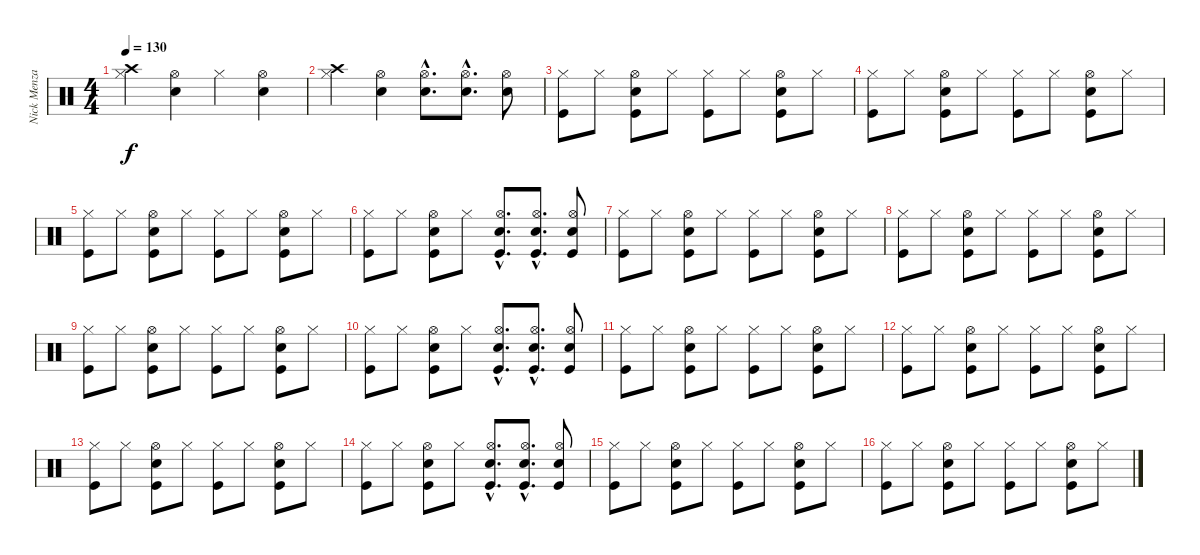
\track ("Nick Menza" "Nick Menza") {instrument percussion}
\staff {score}
\articulation defaults
\ts (4 4)
\tempo 130
\clef neutral
\ks c
("Crash high (hit)" "Hi-Hat (closed)").4{dy f} ("Snare (hit) 2" "Hi-Hat (open)").4 "Hi-Hat (closed)".4 ("Snare (hit) 2" "Hi-Hat (open)").4 |
("Crash high (hit)" "Hi-Hat (closed)").4 ("Snare (hit) 2" "Hi-Hat (open)").4 ("Snare (hit) 2"{hac} "Hi-Hat (open)"{hac}).8{d} ("Snare (hit) 2"{hac} "Hi-Hat (open)"{hac}).8{d} ("Snare (hit) 2" "Hi-Hat (open)").8 |
("Hi-Hat (closed)" "Kick (hit)").8 "Hi-Hat (closed)".8 ("Snare (hit) 2" "Hi-Hat (open)" "Kick (hit)").8 "Hi-Hat (closed)".8 ("Hi-Hat (closed)" "Kick (hit)").8 "Hi-Hat (closed)".8 ("Snare (hit) 2" "Hi-Hat (open)" "Kick (hit)").8 "Hi-Hat (closed)".8 |
("Hi-Hat (closed)" "Kick (hit)").8 "Hi-Hat (closed)".8 ("Snare (hit) 2" "Hi-Hat (open)" "Kick (hit)").8 "Hi-Hat (closed)".8 ("Hi-Hat (closed)" "Kick (hit)").8 "Hi-Hat (closed)".8 ("Snare (hit) 2" "Hi-Hat (open)" "Kick (hit)").8 "Hi-Hat (closed)".8 |
("Hi-Hat (closed)" "Kick (hit)").8 "Hi-Hat (closed)".8 ("Snare (hit) 2" "Hi-Hat (open)" "Kick (hit)").8 "Hi-Hat (closed)".8 ("Hi-Hat (closed)" "Kick (hit)").8 "Hi-Hat (closed)".8 ("Snare (hit) 2" "Hi-Hat (open)" "Kick (hit)").8 "Hi-Hat (closed)".8 |
("Hi-Hat (closed)" "Kick (hit)").8 "Hi-Hat (closed)".8 ("Snare (hit) 2" "Hi-Hat (open)" "Kick (hit)").8 "Hi-Hat (closed)".8 ("Snare (hit) 2"{hac} "Hi-Hat (open)"{hac} "Kick (hit)"{hac}).8{d} ("Snare (hit) 2"{hac} "Hi-Hat (open)"{hac} "Kick (hit)"{hac}).8{d} ("Snare (hit) 2" "Hi-Hat (open)" "Kick (hit)").8 |
("Hi-Hat (closed)" "Kick (hit)").8 "Hi-Hat (closed)".8 ("Snare (hit) 2" "Hi-Hat (open)" "Kick (hit)").8 "Hi-Hat (closed)".8 ("Hi-Hat (closed)" "Kick (hit)").8 "Hi-Hat (closed)".8 ("Snare (hit) 2" "Hi-Hat (open)" "Kick (hit)").8 "Hi-Hat (closed)".8 |
("Hi-Hat (closed)" "Kick (hit)").8 "Hi-Hat (closed)".8 ("Snare (hit) 2" "Hi-Hat (open)" "Kick (hit)").8 "Hi-Hat (closed)".8 ("Hi-Hat (closed)" "Kick (hit)").8 "Hi-Hat (closed)".8 ("Snare (hit) 2" "Hi-Hat (open)" "Kick (hit)").8 "Hi-Hat (closed)".8 |
("Hi-Hat (closed)" "Kick (hit)").8 "Hi-Hat (closed)".8 ("Snare (hit) 2" "Hi-Hat (open)" "Kick (hit)").8 "Hi-Hat (closed)".8 ("Hi-Hat (closed)" "Kick (hit)").8 "Hi-Hat (closed)".8 ("Snare (hit) 2" "Hi-Hat (open)" "Kick (hit)").8 "Hi-Hat (closed)".8 |
("Hi-Hat (closed)" "Kick (hit)").8 "Hi-Hat (closed)".8 ("Snare (hit) 2" "Hi-Hat (open)" "Kick (hit)").8 "Hi-Hat (closed)".8 ("Snare (hit) 2"{hac} "Hi-Hat (open)"{hac} "Kick (hit)"{hac}).8{d} ("Snare (hit) 2"{hac} "Hi-Hat (open)"{hac} "Kick (hit)"{hac}).8{d} ("Snare (hit) 2" "Hi-Hat (open)" "Kick (hit)").8 |
("Hi-Hat (closed)" "Kick (hit)").8 "Hi-Hat (closed)".8 ("Snare (hit) 2" "Hi-Hat (open)" "Kick (hit)").8 "Hi-Hat (closed)".8 ("Hi-Hat (closed)" "Kick (hit)").8 "Hi-Hat (closed)".8 ("Snare (hit) 2" "Hi-Hat (open)" "Kick (hit)").8 "Hi-Hat (closed)".8 |
("Hi-Hat (closed)" "Kick (hit)").8 "Hi-Hat (closed)".8 ("Snare (hit) 2" "Hi-Hat (open)" "Kick (hit)").8 "Hi-Hat (closed)".8 ("Hi-Hat (closed)" "Kick (hit)").8 "Hi-Hat (closed)".8 ("Snare (hit) 2" "Hi-Hat (open)" "Kick (hit)").8 "Hi-Hat (closed)".8 |
("Hi-Hat (closed)" "Kick (hit)").8 "Hi-Hat (closed)".8 ("Snare (hit) 2" "Hi-Hat (open)" "Kick (hit)").8 "Hi-Hat (closed)".8 ("Hi-Hat (closed)" "Kick (hit)").8 "Hi-Hat (closed)".8 ("Snare (hit) 2" "Hi-Hat (open)" "Kick (hit)").8 "Hi-Hat (closed)".8 |
("Hi-Hat (closed)" "Kick (hit)").8 "Hi-Hat (closed)".8 ("Snare (hit) 2" "Hi-Hat (open)" "Kick (hit)").8 "Hi-Hat (closed)".8 ("Snare (hit) 2"{hac} "Hi-Hat (open)"{hac} "Kick (hit)"{hac}).8{d} ("Snare (hit) 2"{hac} "Hi-Hat (open)"{hac} "Kick (hit)"{hac}).8{d} ("Snare (hit) 2" "Hi-Hat (open)" "Kick (hit)").8 |
("Hi-Hat (closed)" "Kick (hit)").8 "Hi-Hat (closed)".8 ("Snare (hit) 2" "Hi-Hat (open)" "Kick (hit)").8 "Hi-Hat (closed)".8 ("Hi-Hat (closed)" "Kick (hit)").8 "Hi-Hat (closed)".8 ("Snare (hit) 2" "Hi-Hat (open)" "Kick (hit)").8 "Hi-Hat (closed)".8 |
("Hi-Hat (closed)" "Kick (hit)").8 "Hi-Hat (closed)".8 ("Snare (hit) 2" "Hi-Hat (open)" "Kick (hit)").8 "Hi-Hat (closed)".8 ("Hi-Hat (closed)" "Kick (hit)").8 "Hi-Hat (closed)".8 ("Snare (hit) 2" "Hi-Hat (open)" "Kick (hit)").8 "Hi-Hat (closed)".8
